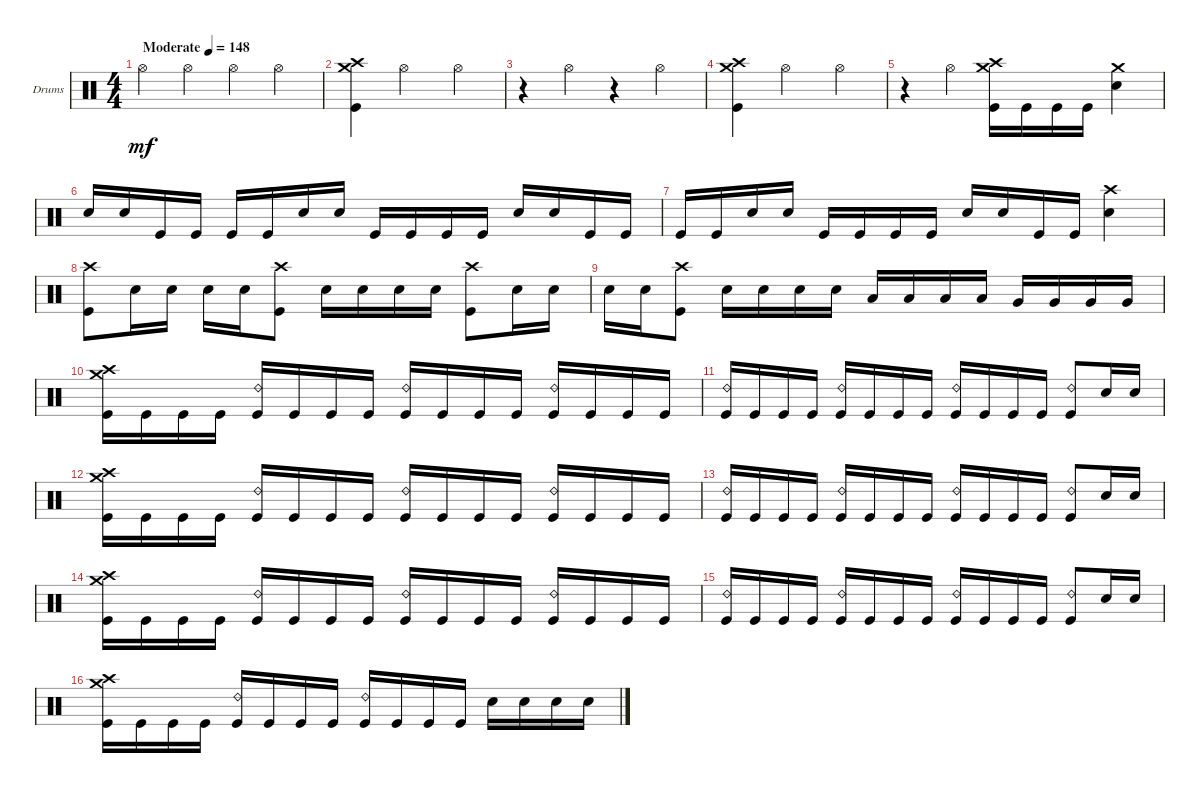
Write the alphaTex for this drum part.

\bracketExtendMode groupsimilarinstruments
\firstSystemTrackNameOrientation horizontal
\otherSystemsTrackNameOrientation horizontal
\track ("Drumkit" "Drums") {instrument percussion}
\staff {score}
\articulation defaults
\ts (4 4)
\beaming (8 2 2 2 2)
\tempo (148 "Moderate")
\clef neutral
\scale
0.472222
\ks c "Hi-Hat (open)".4{dy mf} "Hi-Hat (open)".4 "Hi-Hat (open)".4 "Hi-Hat (open)".4
|
\scale
0.263889 ("Crash high (hit)" "Crash medium (hit)" "Kick (hit)").4 "Hi-Hat (open)".2 "Hi-Hat (open)".4 |
\scale
0.263889 r.4 "Hi-Hat (open)".4 r.4 "Hi-Hat (open)".4 |
\scale
0.333333 ("Crash high (hit)" "Crash medium (hit)" "Kick (hit)").4 "Hi-Hat (open)".2 "Hi-Hat (open)".4 |
\scale
0.333333 r.4 "Hi-Hat (open)".4 ("Kick (hit)" "Crash medium (hit)" "Crash high (hit)").16 "Kick (hit)".16 "Kick (hit)".16 "Kick (hit)".16 ("Crash medium (hit)" "Snare (hit) 2").4 |
\scale
0.333333 "Snare (hit) 2".16 "Snare (hit) 2".16 "Kick (hit)".16 "Kick (hit)".16 "Kick (hit)".16 "Kick (hit)".16 "Snare (hit) 2".16 "Snare (hit) 2".16 "Kick (hit)".16 "Kick (hit)".16 "Kick (hit)".16 "Kick (hit)".16 "Snare (hit) 2".16 "Snare (hit) 2".16 "Kick (hit)".16 "Kick (hit)".16 |
\scale
0.333333 "Kick (hit)".16 "Kick (hit)".16 "Snare (hit) 2".16 "Snare (hit) 2".16 "Kick (hit)".16 "Kick (hit)".16 "Kick (hit)".16 "Kick (hit)".16 "Snare (hit) 2".16 "Snare (hit) 2".16 "Kick (hit)".16 "Kick (hit)".16 ("Snare (hit) 2" "Crash high (hit)").4 |
\scale
0.333333 ("Kick (hit)" "Crash high (hit)").8 "Snare (hit) 2".16 "Snare (hit) 2".16 "Snare (hit) 2".16 "Snare (hit) 2".16 ("Kick (hit)" "Crash high (hit)").8 "Snare (hit) 2".16 "Snare (hit) 2".16 "Snare (hit) 2".16 "Snare (hit) 2".16 ("Kick (hit)" "Crash high (hit)").8 "Snare (hit) 2".16 "Snare (hit) 2".16 |
\scale
0.333333 "Snare (hit) 2".16 "Snare (hit) 2".16 ("Kick (hit)" "Crash high (hit)").8 "Snare (hit) 2".16 "Snare (hit) 2".16 "Snare (hit) 2".16 "Snare (hit) 2".16 "Low Tom (hit)".16 "Low Tom (hit)".16 "Low Tom (hit)".16 "Low Tom (hit)".16 "Very Low Tom (hit)".16 "Very Low Tom (hit)".16 "Very Low Tom (hit)".16 "Very Low Tom (hit)".16 |
\scale
0.333333 ("Kick (hit)" "Crash high (hit)" "Crash medium (hit)").16 "Kick (hit)".16 "Kick (hit)".16 "Kick (hit)".16 ("Kick (hit)" "Ride (bell) 2").16 "Kick (hit)".16 "Kick (hit)".16 "Kick (hit)".16 ("Kick (hit)" "Ride (bell) 2").16 "Kick (hit)".16 "Kick (hit)".16 "Kick (hit)".16 ("Kick (hit)" "Ride (bell) 2").16 "Kick (hit)".16 "Kick (hit)".16 "Kick (hit)".16 |
\scale
0.333333 ("Kick (hit)" "Ride (bell) 2").16 "Kick (hit)".16 "Kick (hit)".16 "Kick (hit)".16 ("Kick (hit)" "Ride (bell) 2").16 "Kick (hit)".16 "Kick (hit)".16 "Kick (hit)".16 ("Kick (hit)" "Ride (bell) 2").16 "Kick (hit)".16 "Kick (hit)".16 "Kick (hit)".16 ("Kick (hit)" "Ride (bell) 2").8 "Snare (hit) 2".16 "Snare (hit) 2".16 |
\scale
0.333333 ("Kick (hit)" "Crash high (hit)" "Crash medium (hit)").16 "Kick (hit)".16 "Kick (hit)".16 "Kick (hit)".16 ("Kick (hit)" "Ride (bell) 2").16 "Kick (hit)".16 "Kick (hit)".16 "Kick (hit)".16 ("Kick (hit)" "Ride (bell) 2").16 "Kick (hit)".16 "Kick (hit)".16 "Kick (hit)".16 ("Kick (hit)" "Ride (bell) 2").16 "Kick (hit)".16 "Kick (hit)".16 "Kick (hit)".16 |
\scale
0.333333 ("Kick (hit)" "Ride (bell) 2").16 "Kick (hit)".16 "Kick (hit)".16 "Kick (hit)".16 ("Kick (hit)" "Ride (bell) 2").16 "Kick (hit)".16 "Kick (hit)".16 "Kick (hit)".16 ("Kick (hit)" "Ride (bell) 2").16 "Kick (hit)".16 "Kick (hit)".16 "Kick (hit)".16 ("Kick (hit)" "Ride (bell) 2").8 "Snare (hit) 2".16 "Snare (hit) 2".16 |
\scale
0.333333 ("Kick (hit)" "Crash high (hit)" "Crash medium (hit)").16 "Kick (hit)".16 "Kick (hit)".16 "Kick (hit)".16 ("Kick (hit)" "Ride (bell) 2").16 "Kick (hit)".16 "Kick (hit)".16 "Kick (hit)".16 ("Kick (hit)" "Ride (bell) 2").16 "Kick (hit)".16 "Kick (hit)".16 "Kick (hit)".16 ("Kick (hit)" "Ride (bell) 2").16 "Kick (hit)".16 "Kick (hit)".16 "Kick (hit)".16 |
\scale
0.333333 ("Kick (hit)" "Ride (bell) 2").16 "Kick (hit)".16 "Kick (hit)".16 "Kick (hit)".16 ("Kick (hit)" "Ride (bell) 2").16 "Kick (hit)".16 "Kick (hit)".16 "Kick (hit)".16 ("Kick (hit)" "Ride (bell) 2").16 "Kick (hit)".16 "Kick (hit)".16 "Kick (hit)".16 ("Kick (hit)" "Ride (bell) 2").8 "Snare (hit) 2".16 "Snare (hit) 2".16 |
\scale
0.333333 ("Kick (hit)" "Crash high (hit)" "Crash medium (hit)").16 "Kick (hit)".16 "Kick (hit)".16 "Kick (hit)".16 ("Kick (hit)" "Ride (bell) 2").16 "Kick (hit)".16 "Kick (hit)".16 "Kick (hit)".16 ("Kick (hit)" "Ride (bell) 2").16 "Kick (hit)".16 "Kick (hit)".16 "Kick (hit)".16 "Snare (hit) 2".16 "Snare (hit) 2".16 "Snare (hit) 2".16 "Snare (hit) 2".16
